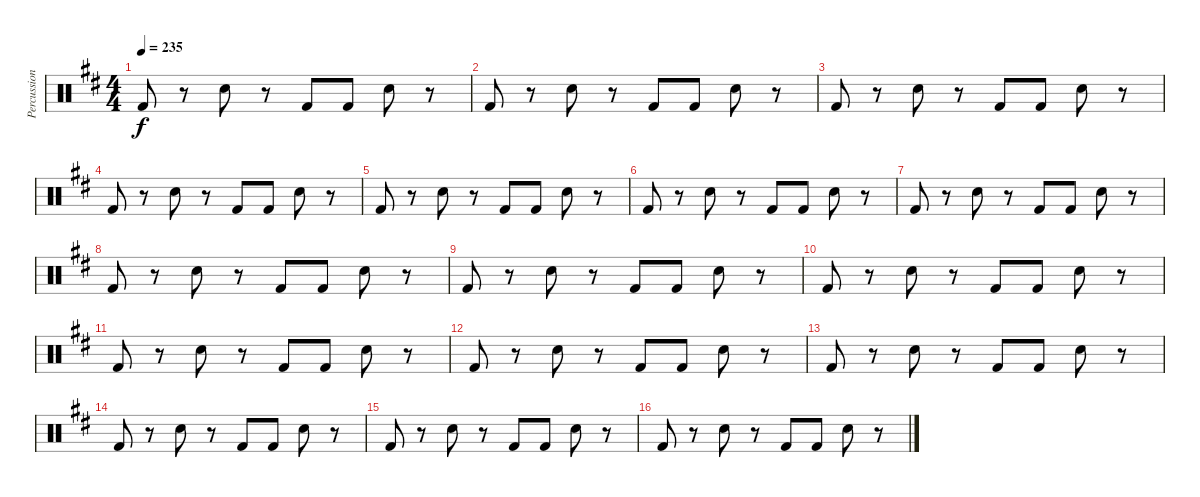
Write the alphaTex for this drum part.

\track ("Percussion" "Percussion") {instrument percussion}
\staff {score}
\articulation defaults
\ts (4 4)
\tempo 235
\clef neutral
\ks d "Kick (hit) 2".8{dy f}
r.8 "Snare (hit) 2".8 r.8 "Kick (hit) 2".8 "Kick (hit) 2".8 "Snare (hit) 2".8 r.8 |
"Kick (hit) 2".8 r.8 "Snare (hit) 2".8 r.8 "Kick (hit) 2".8 "Kick (hit) 2".8 "Snare (hit) 2".8 r.8 |
"Kick (hit) 2".8 r.8 "Snare (hit) 2".8 r.8 "Kick (hit) 2".8 "Kick (hit) 2".8 "Snare (hit) 2".8 r.8 |
"Kick (hit) 2".8 r.8 "Snare (hit) 2".8 r.8 "Kick (hit) 2".8 "Kick (hit) 2".8 "Snare (hit) 2".8 r.8 |
"Kick (hit) 2".8 r.8 "Snare (hit) 2".8 r.8 "Kick (hit) 2".8 "Kick (hit) 2".8 "Snare (hit) 2".8 r.8 |
"Kick (hit) 2".8 r.8 "Snare (hit) 2".8 r.8 "Kick (hit) 2".8 "Kick (hit) 2".8 "Snare (hit) 2".8 r.8 |
"Kick (hit) 2".8 r.8 "Snare (hit) 2".8 r.8 "Kick (hit) 2".8 "Kick (hit) 2".8 "Snare (hit) 2".8 r.8 |
"Kick (hit) 2".8 r.8 "Snare (hit) 2".8 r.8 "Kick (hit) 2".8 "Kick (hit) 2".8 "Snare (hit) 2".8 r.8 |
"Kick (hit) 2".8 r.8 "Snare (hit) 2".8 r.8 "Kick (hit) 2".8 "Kick (hit) 2".8 "Snare (hit) 2".8 r.8 |
"Kick (hit) 2".8 r.8 "Snare (hit) 2".8 r.8 "Kick (hit) 2".8 "Kick (hit) 2".8 "Snare (hit) 2".8 r.8 |
"Kick (hit) 2".8 r.8 "Snare (hit) 2".8 r.8 "Kick (hit) 2".8 "Kick (hit) 2".8 "Snare (hit) 2".8 r.8 |
"Kick (hit) 2".8 r.8 "Snare (hit) 2".8 r.8 "Kick (hit) 2".8 "Kick (hit) 2".8 "Snare (hit) 2".8 r.8 |
"Kick (hit) 2".8 r.8 "Snare (hit) 2".8 r.8 "Kick (hit) 2".8 "Kick (hit) 2".8 "Snare (hit) 2".8 r.8 |
"Kick (hit) 2".8 r.8 "Snare (hit) 2".8 r.8 "Kick (hit) 2".8 "Kick (hit) 2".8 "Snare (hit) 2".8 r.8 |
"Kick (hit) 2".8 r.8 "Snare (hit) 2".8 r.8 "Kick (hit) 2".8 "Kick (hit) 2".8 "Snare (hit) 2".8 r.8 |
"Kick (hit) 2".8 r.8 "Snare (hit) 2".8 r.8 "Kick (hit) 2".8 "Kick (hit) 2".8 "Snare (hit) 2".8 r.8
